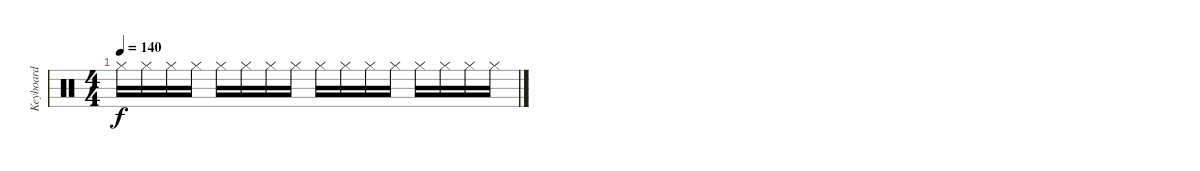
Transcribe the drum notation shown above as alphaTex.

\track ("Keyboard" "Keyboard") {instrument percussion}
\staff {score}
\articulation defaults
\ts (4 4)
\tempo 140
\clef neutral
\ks c "Hi-Hat (closed)".16{dy f} "Hi-Hat (closed)".16 "Hi-Hat (closed)".16 "Hi-Hat (closed)".16 "Hi-Hat (closed)".16 "Hi-Hat (closed)".16 "Hi-Hat (closed)".16 "Hi-Hat (closed)".16 "Hi-Hat (closed)".16 "Hi-Hat (closed)".16 "Hi-Hat (closed)".16 "Hi-Hat (closed)".16 "Hi-Hat (closed)".16 "Hi-Hat (closed)".16 "Hi-Hat (closed)".16 "Hi-Hat (closed)".16
